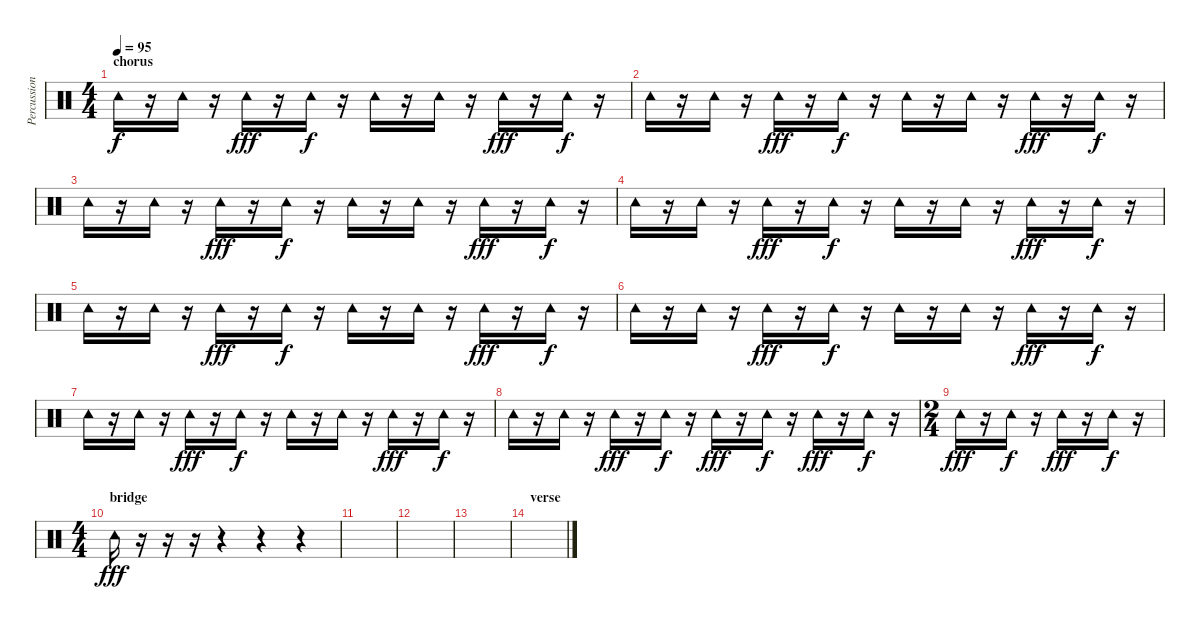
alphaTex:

\track ("Percussion" "Percussion") {instrument percussion}
\staff {score}
\articulation defaults
\ts (4 4)
\section ("" "chorus")
\tempo 95
\clef neutral
\ks c "Tambourine (hit)".16{dy f}
r.16 "Tambourine (hit)".16 r.16 "Tambourine (hit)".16{dy fff} r.16 "Tambourine (hit)".16{dy f} r.16 "Tambourine (hit)".16 r.16 "Tambourine (hit)".16 r.16 "Tambourine (hit)".16{dy fff} r.16 "Tambourine (hit)".16{dy f} r.16 |
"Tambourine (hit)".16 r.16 "Tambourine (hit)".16 r.16 "Tambourine (hit)".16{dy fff} r.16 "Tambourine (hit)".16{dy f} r.16 "Tambourine (hit)".16 r.16 "Tambourine (hit)".16 r.16 "Tambourine (hit)".16{dy fff} r.16 "Tambourine (hit)".16{dy f} r.16 |
"Tambourine (hit)".16 r.16 "Tambourine (hit)".16 r.16 "Tambourine (hit)".16{dy fff} r.16 "Tambourine (hit)".16{dy f} r.16 "Tambourine (hit)".16 r.16 "Tambourine (hit)".16 r.16 "Tambourine (hit)".16{dy fff} r.16 "Tambourine (hit)".16{dy f} r.16 |
"Tambourine (hit)".16 r.16 "Tambourine (hit)".16 r.16 "Tambourine (hit)".16{dy fff} r.16 "Tambourine (hit)".16{dy f} r.16 "Tambourine (hit)".16 r.16 "Tambourine (hit)".16 r.16 "Tambourine (hit)".16{dy fff} r.16 "Tambourine (hit)".16{dy f} r.16 |
"Tambourine (hit)".16 r.16 "Tambourine (hit)".16 r.16 "Tambourine (hit)".16{dy fff} r.16 "Tambourine (hit)".16{dy f} r.16 "Tambourine (hit)".16 r.16 "Tambourine (hit)".16 r.16 "Tambourine (hit)".16{dy fff} r.16 "Tambourine (hit)".16{dy f} r.16 |
"Tambourine (hit)".16 r.16 "Tambourine (hit)".16 r.16 "Tambourine (hit)".16{dy fff} r.16 "Tambourine (hit)".16{dy f} r.16 "Tambourine (hit)".16 r.16 "Tambourine (hit)".16 r.16 "Tambourine (hit)".16{dy fff} r.16 "Tambourine (hit)".16{dy f} r.16 |
"Tambourine (hit)".16 r.16 "Tambourine (hit)".16 r.16 "Tambourine (hit)".16{dy fff} r.16 "Tambourine (hit)".16{dy f} r.16 "Tambourine (hit)".16 r.16 "Tambourine (hit)".16 r.16 "Tambourine (hit)".16{dy fff} r.16 "Tambourine (hit)".16{dy f} r.16 |
"Tambourine (hit)".16 r.16 "Tambourine (hit)".16 r.16 "Tambourine (hit)".16{dy fff} r.16 "Tambourine (hit)".16{dy f} r.16 "Tambourine (hit)".16{dy fff} r.16 "Tambourine (hit)".16{dy f} r.16 "Tambourine (hit)".16{dy fff} r.16 "Tambourine (hit)".16{dy f} r.16 |
\ts (2 4)
"Tambourine (hit)".16{dy fff} r.16 "Tambourine (hit)".16{dy f} r.16 "Tambourine (hit)".16{dy fff} r.16 "Tambourine (hit)".16{dy f} r.16 |
\ts (4 4)
\section ("" "bridge")
"Tambourine (hit)".16{dy fff} r.16 r.16 r.16 r.4 r.4 r.4 |
|
|
|
\section ("" "verse")
